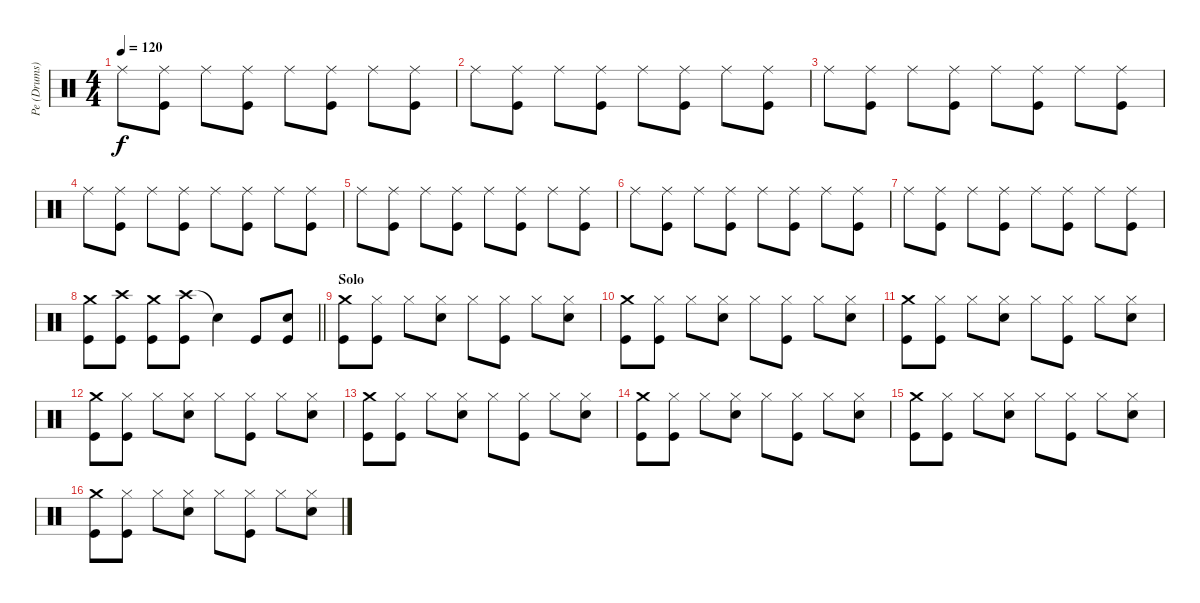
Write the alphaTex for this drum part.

\track ("Pe (Drums)" "Pe (Drums)") {instrument percussion}
\staff {score}
\articulation defaults
\ts (4 4)
\tempo 120
\clef neutral
\ks c "Ride (middle)".8{dy f}
("Ride (middle)" "Kick (hit)").8 "Ride (middle)".8 ("Ride (middle)" "Kick (hit)").8 "Ride (middle)".8 ("Ride (middle)" "Kick (hit)").8 "Ride (middle)".8 ("Ride (middle)" "Kick (hit)").8 |
"Ride (middle)".8 ("Ride (middle)" "Kick (hit)").8 "Ride (middle)".8 ("Ride (middle)" "Kick (hit)").8 "Ride (middle)".8 ("Ride (middle)" "Kick (hit)").8 "Ride (middle)".8 ("Ride (middle)" "Kick (hit)").8 |
"Ride (middle)".8 ("Ride (middle)" "Kick (hit)").8 "Ride (middle)".8 ("Ride (middle)" "Kick (hit)").8 "Ride (middle)".8 ("Ride (middle)" "Kick (hit)").8 "Ride (middle)".8 ("Ride (middle)" "Kick (hit)").8 |
"Ride (middle)".8 ("Ride (middle)" "Kick (hit)").8 "Ride (middle)".8 ("Ride (middle)" "Kick (hit)").8 "Ride (middle)".8 ("Ride (middle)" "Kick (hit)").8 "Ride (middle)".8 ("Ride (middle)" "Kick (hit)").8 |
"Ride (middle)".8 ("Ride (middle)" "Kick (hit)").8 "Ride (middle)".8 ("Ride (middle)" "Kick (hit)").8 "Ride (middle)".8 ("Ride (middle)" "Kick (hit)").8 "Ride (middle)".8 ("Ride (middle)" "Kick (hit)").8 |
"Ride (middle)".8 ("Ride (middle)" "Kick (hit)").8 "Ride (middle)".8 ("Ride (middle)" "Kick (hit)").8 "Ride (middle)".8 ("Ride (middle)" "Kick (hit)").8 "Ride (middle)".8 ("Ride (middle)" "Kick (hit)").8 |
"Ride (middle)".8 ("Ride (middle)" "Kick (hit)").8 "Ride (middle)".8 ("Ride (middle)" "Kick (hit)").8 "Ride (middle)".8 ("Ride (middle)" "Kick (hit)").8 "Ride (middle)".8 ("Ride (middle)" "Kick (hit)").8 |
\barLineRight lightlight
("Crash medium (hit)" "Kick (hit)").8 ("Crash high (hit)" "Kick (hit)").8 ("Crash medium (hit)" "Kick (hit)").8 ("Crash high (hit)" "Kick (hit)").8 "Snare (hit)"{t}.4 "Kick (hit)".8 ("Electric Snare (hit)" "Kick (hit)").8 |
\section ("" "Solo")
("Crash medium (hit)" "Kick (hit)").8 ("Hi-Hat (closed)" "Kick (hit)").8 "Hi-Hat (closed)".8 ("Hi-Hat (closed)" "Electric Snare (hit)").8 "Hi-Hat (closed)".8 ("Hi-Hat (closed)" "Kick (hit)").8 "Hi-Hat (closed)".8 ("Hi-Hat (closed)" "Electric Snare (hit)").8 |
("Crash medium (hit)" "Kick (hit)").8 ("Hi-Hat (closed)" "Kick (hit)").8 "Hi-Hat (closed)".8 ("Hi-Hat (closed)" "Electric Snare (hit)").8 "Hi-Hat (closed)".8 ("Hi-Hat (closed)" "Kick (hit)").8 "Hi-Hat (closed)".8 ("Hi-Hat (closed)" "Electric Snare (hit)").8 |
("Crash medium (hit)" "Kick (hit)").8 ("Hi-Hat (closed)" "Kick (hit)").8 "Hi-Hat (closed)".8 ("Hi-Hat (closed)" "Electric Snare (hit)").8 "Hi-Hat (closed)".8 ("Hi-Hat (closed)" "Kick (hit)").8 "Hi-Hat (closed)".8 ("Hi-Hat (closed)" "Electric Snare (hit)").8 |
("Crash medium (hit)" "Kick (hit)").8 ("Hi-Hat (closed)" "Kick (hit)").8 "Hi-Hat (closed)".8 ("Hi-Hat (closed)" "Electric Snare (hit)").8 "Hi-Hat (closed)".8 ("Hi-Hat (closed)" "Kick (hit)").8 "Hi-Hat (closed)".8 ("Hi-Hat (closed)" "Electric Snare (hit)").8 |
("Crash medium (hit)" "Kick (hit)").8 ("Hi-Hat (closed)" "Kick (hit)").8 "Hi-Hat (closed)".8 ("Hi-Hat (closed)" "Electric Snare (hit)").8 "Hi-Hat (closed)".8 ("Hi-Hat (closed)" "Kick (hit)").8 "Hi-Hat (closed)".8 ("Hi-Hat (closed)" "Electric Snare (hit)").8 |
("Crash medium (hit)" "Kick (hit)").8 ("Hi-Hat (closed)" "Kick (hit)").8 "Hi-Hat (closed)".8 ("Hi-Hat (closed)" "Electric Snare (hit)").8 "Hi-Hat (closed)".8 ("Hi-Hat (closed)" "Kick (hit)").8 "Hi-Hat (closed)".8 ("Hi-Hat (closed)" "Electric Snare (hit)").8 |
("Crash medium (hit)" "Kick (hit)").8 ("Hi-Hat (closed)" "Kick (hit)").8 "Hi-Hat (closed)".8 ("Hi-Hat (closed)" "Electric Snare (hit)").8 "Hi-Hat (closed)".8 ("Hi-Hat (closed)" "Kick (hit)").8 "Hi-Hat (closed)".8 ("Hi-Hat (closed)" "Electric Snare (hit)").8 |
("Crash medium (hit)" "Kick (hit)").8 ("Hi-Hat (closed)" "Kick (hit)").8 "Hi-Hat (closed)".8 ("Hi-Hat (closed)" "Electric Snare (hit)").8 "Hi-Hat (closed)".8 ("Hi-Hat (closed)" "Kick (hit)").8 "Hi-Hat (closed)".8 ("Hi-Hat (closed)" "Electric Snare (hit)").8
